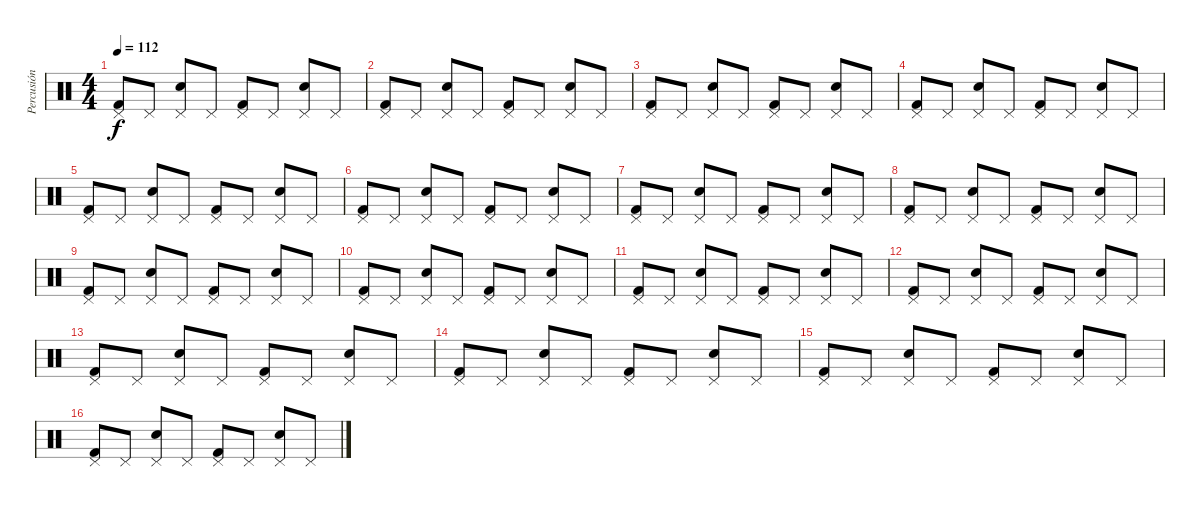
\track ("Percusión" "Percusión") {instrument percussion}
\staff {score}
\articulation defaults
\ts (4 4)
\tempo 112
\clef neutral
\ks c
("Pedal Hi-Hat (hit)" "Kick (hit) 2").8{dy f} "Pedal Hi-Hat (hit)".8 ("Snare (hit) 2" "Pedal Hi-Hat (hit)").8 "Pedal Hi-Hat (hit)".8 ("Pedal Hi-Hat (hit)" "Kick (hit) 2").8 "Pedal Hi-Hat (hit)".8 ("Snare (hit) 2" "Pedal Hi-Hat (hit)").8 "Pedal Hi-Hat (hit)".8 |
("Pedal Hi-Hat (hit)" "Kick (hit) 2").8 "Pedal Hi-Hat (hit)".8 ("Snare (hit) 2" "Pedal Hi-Hat (hit)").8 "Pedal Hi-Hat (hit)".8 ("Pedal Hi-Hat (hit)" "Kick (hit) 2").8 "Pedal Hi-Hat (hit)".8 ("Snare (hit) 2" "Pedal Hi-Hat (hit)").8 "Pedal Hi-Hat (hit)".8 |
("Pedal Hi-Hat (hit)" "Kick (hit) 2").8 "Pedal Hi-Hat (hit)".8 ("Snare (hit) 2" "Pedal Hi-Hat (hit)").8 "Pedal Hi-Hat (hit)".8 ("Pedal Hi-Hat (hit)" "Kick (hit) 2").8 "Pedal Hi-Hat (hit)".8 ("Snare (hit) 2" "Pedal Hi-Hat (hit)").8 "Pedal Hi-Hat (hit)".8 |
("Pedal Hi-Hat (hit)" "Kick (hit) 2").8 "Pedal Hi-Hat (hit)".8 ("Snare (hit) 2" "Pedal Hi-Hat (hit)").8 "Pedal Hi-Hat (hit)".8 ("Pedal Hi-Hat (hit)" "Kick (hit) 2").8 "Pedal Hi-Hat (hit)".8 ("Snare (hit) 2" "Pedal Hi-Hat (hit)").8 "Pedal Hi-Hat (hit)".8 |
("Pedal Hi-Hat (hit)" "Kick (hit) 2").8 "Pedal Hi-Hat (hit)".8 ("Snare (hit) 2" "Pedal Hi-Hat (hit)").8 "Pedal Hi-Hat (hit)".8 ("Pedal Hi-Hat (hit)" "Kick (hit) 2").8 "Pedal Hi-Hat (hit)".8 ("Snare (hit) 2" "Pedal Hi-Hat (hit)").8 "Pedal Hi-Hat (hit)".8 |
("Pedal Hi-Hat (hit)" "Kick (hit) 2").8 "Pedal Hi-Hat (hit)".8 ("Snare (hit) 2" "Pedal Hi-Hat (hit)").8 "Pedal Hi-Hat (hit)".8 ("Pedal Hi-Hat (hit)" "Kick (hit) 2").8 "Pedal Hi-Hat (hit)".8 ("Snare (hit) 2" "Pedal Hi-Hat (hit)").8 "Pedal Hi-Hat (hit)".8 |
("Pedal Hi-Hat (hit)" "Kick (hit) 2").8 "Pedal Hi-Hat (hit)".8 ("Snare (hit) 2" "Pedal Hi-Hat (hit)").8 "Pedal Hi-Hat (hit)".8 ("Pedal Hi-Hat (hit)" "Kick (hit) 2").8 "Pedal Hi-Hat (hit)".8 ("Snare (hit) 2" "Pedal Hi-Hat (hit)").8 "Pedal Hi-Hat (hit)".8 |
("Pedal Hi-Hat (hit)" "Kick (hit) 2").8 "Pedal Hi-Hat (hit)".8 ("Snare (hit) 2" "Pedal Hi-Hat (hit)").8 "Pedal Hi-Hat (hit)".8 ("Pedal Hi-Hat (hit)" "Kick (hit) 2").8 "Pedal Hi-Hat (hit)".8 ("Snare (hit) 2" "Pedal Hi-Hat (hit)").8 "Pedal Hi-Hat (hit)".8 |
("Pedal Hi-Hat (hit)" "Kick (hit) 2").8 "Pedal Hi-Hat (hit)".8 ("Snare (hit) 2" "Pedal Hi-Hat (hit)").8 "Pedal Hi-Hat (hit)".8 ("Pedal Hi-Hat (hit)" "Kick (hit) 2").8 "Pedal Hi-Hat (hit)".8 ("Snare (hit) 2" "Pedal Hi-Hat (hit)").8 "Pedal Hi-Hat (hit)".8 |
("Pedal Hi-Hat (hit)" "Kick (hit) 2").8 "Pedal Hi-Hat (hit)".8 ("Snare (hit) 2" "Pedal Hi-Hat (hit)").8 "Pedal Hi-Hat (hit)".8 ("Pedal Hi-Hat (hit)" "Kick (hit) 2").8 "Pedal Hi-Hat (hit)".8 ("Snare (hit) 2" "Pedal Hi-Hat (hit)").8 "Pedal Hi-Hat (hit)".8 |
("Pedal Hi-Hat (hit)" "Kick (hit) 2").8 "Pedal Hi-Hat (hit)".8 ("Snare (hit) 2" "Pedal Hi-Hat (hit)").8 "Pedal Hi-Hat (hit)".8 ("Pedal Hi-Hat (hit)" "Kick (hit) 2").8 "Pedal Hi-Hat (hit)".8 ("Snare (hit) 2" "Pedal Hi-Hat (hit)").8 "Pedal Hi-Hat (hit)".8 |
("Pedal Hi-Hat (hit)" "Kick (hit) 2").8 "Pedal Hi-Hat (hit)".8 ("Snare (hit) 2" "Pedal Hi-Hat (hit)").8 "Pedal Hi-Hat (hit)".8 ("Pedal Hi-Hat (hit)" "Kick (hit) 2").8 "Pedal Hi-Hat (hit)".8 ("Snare (hit) 2" "Pedal Hi-Hat (hit)").8 "Pedal Hi-Hat (hit)".8 |
("Pedal Hi-Hat (hit)" "Kick (hit) 2").8 "Pedal Hi-Hat (hit)".8 ("Snare (hit) 2" "Pedal Hi-Hat (hit)").8 "Pedal Hi-Hat (hit)".8 ("Pedal Hi-Hat (hit)" "Kick (hit) 2").8 "Pedal Hi-Hat (hit)".8 ("Snare (hit) 2" "Pedal Hi-Hat (hit)").8 "Pedal Hi-Hat (hit)".8 |
("Pedal Hi-Hat (hit)" "Kick (hit) 2").8 "Pedal Hi-Hat (hit)".8 ("Snare (hit) 2" "Pedal Hi-Hat (hit)").8 "Pedal Hi-Hat (hit)".8 ("Pedal Hi-Hat (hit)" "Kick (hit) 2").8 "Pedal Hi-Hat (hit)".8 ("Snare (hit) 2" "Pedal Hi-Hat (hit)").8 "Pedal Hi-Hat (hit)".8 |
("Pedal Hi-Hat (hit)" "Kick (hit) 2").8 "Pedal Hi-Hat (hit)".8 ("Snare (hit) 2" "Pedal Hi-Hat (hit)").8 "Pedal Hi-Hat (hit)".8 ("Pedal Hi-Hat (hit)" "Kick (hit) 2").8 "Pedal Hi-Hat (hit)".8 ("Snare (hit) 2" "Pedal Hi-Hat (hit)").8 "Pedal Hi-Hat (hit)".8 |
("Pedal Hi-Hat (hit)" "Kick (hit) 2").8 "Pedal Hi-Hat (hit)".8 ("Snare (hit) 2" "Pedal Hi-Hat (hit)").8 "Pedal Hi-Hat (hit)".8 ("Pedal Hi-Hat (hit)" "Kick (hit) 2").8 "Pedal Hi-Hat (hit)".8 ("Snare (hit) 2" "Pedal Hi-Hat (hit)").8 "Pedal Hi-Hat (hit)".8
